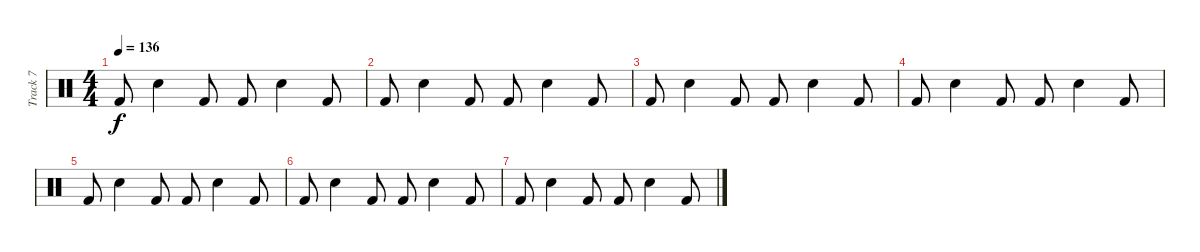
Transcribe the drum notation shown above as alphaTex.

\track ("Track 7" "Track 7") {instrument percussion}
\staff {score}
\articulation defaults
\ts (4 4)
\tempo 136
\clef neutral
\ks c "Kick (hit) 2".8{dy f} "Electric Snare (hit)".4 "Kick (hit) 2".8 "Kick (hit) 2".8 "Electric Snare (hit)".4 "Kick (hit) 2".8
|
"Kick (hit) 2".8 "Electric Snare (hit)".4 "Kick (hit) 2".8 "Kick (hit) 2".8 "Electric Snare (hit)".4 "Kick (hit) 2".8 |
"Kick (hit) 2".8 "Electric Snare (hit)".4 "Kick (hit) 2".8 "Kick (hit) 2".8 "Electric Snare (hit)".4 "Kick (hit) 2".8 |
"Kick (hit) 2".8 "Electric Snare (hit)".4 "Kick (hit) 2".8 "Kick (hit) 2".8 "Electric Snare (hit)".4 "Kick (hit) 2".8 |
"Kick (hit) 2".8 "Electric Snare (hit)".4 "Kick (hit) 2".8 "Kick (hit) 2".8 "Electric Snare (hit)".4 "Kick (hit) 2".8 |
"Kick (hit) 2".8 "Electric Snare (hit)".4 "Kick (hit) 2".8 "Kick (hit) 2".8 "Electric Snare (hit)".4 "Kick (hit) 2".8 |
"Kick (hit) 2".8 "Electric Snare (hit)".4 "Kick (hit) 2".8 "Kick (hit) 2".8 "Electric Snare (hit)".4 "Kick (hit) 2".8
